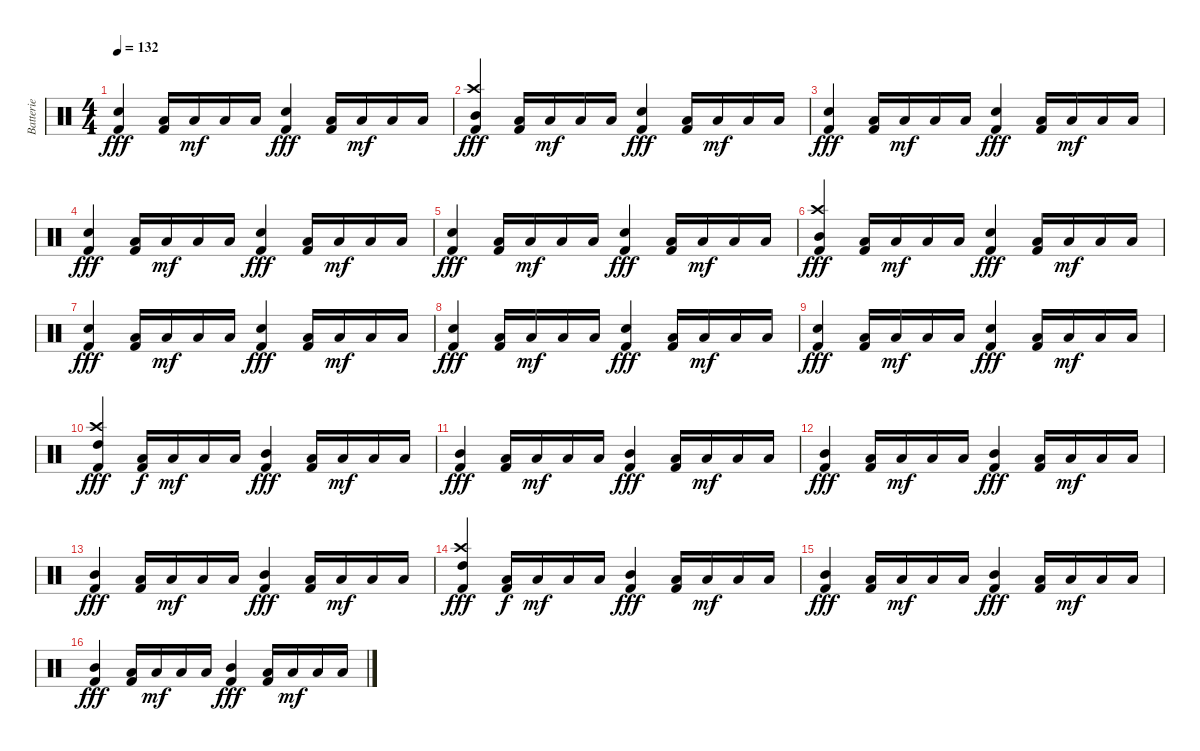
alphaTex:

\track ("Batterie" "Batterie") {instrument percussion}
\staff {score}
\articulation defaults
\ts (4 4)
\tempo 132
\clef neutral
\ks c
("Electric Snare (hit)" "Kick (hit) 2").4{dy fff} ("Low Tom (hit)" "Kick (hit) 2").16 "Low Tom (hit)".16{dy mf} "Low Tom (hit)".16 "Low Tom (hit)".16 ("Electric Snare (hit)" "Kick (hit) 2").4{dy fff} ("Low Tom (hit)" "Kick (hit) 2").16 "Low Tom (hit)".16{dy mf} "Low Tom (hit)".16 "Low Tom (hit)".16 |
("Crash high (hit)" "Mid Tom (hit)" "Kick (hit) 2").4{dy fff} ("Low Tom (hit)" "Kick (hit) 2").16 "Low Tom (hit)".16{dy mf} "Low Tom (hit)".16 "Low Tom (hit)".16 ("Electric Snare (hit)" "Kick (hit) 2").4{dy fff} ("Low Tom (hit)" "Kick (hit) 2").16 "Low Tom (hit)".16{dy mf} "Low Tom (hit)".16 "Low Tom (hit)".16 |
("Electric Snare (hit)" "Kick (hit) 2").4{dy fff} ("Low Tom (hit)" "Kick (hit) 2").16 "Low Tom (hit)".16{dy mf} "Low Tom (hit)".16 "Low Tom (hit)".16 ("Electric Snare (hit)" "Kick (hit) 2").4{dy fff} ("Low Tom (hit)" "Kick (hit) 2").16 "Low Tom (hit)".16{dy mf} "Low Tom (hit)".16 "Low Tom (hit)".16 |
("Electric Snare (hit)" "Kick (hit) 2").4{dy fff} ("Low Tom (hit)" "Kick (hit) 2").16 "Low Tom (hit)".16{dy mf} "Low Tom (hit)".16 "Low Tom (hit)".16 ("Electric Snare (hit)" "Kick (hit) 2").4{dy fff} ("Low Tom (hit)" "Kick (hit) 2").16 "Low Tom (hit)".16{dy mf} "Low Tom (hit)".16 "Low Tom (hit)".16 |
("Electric Snare (hit)" "Kick (hit) 2").4{dy fff} ("Low Tom (hit)" "Kick (hit) 2").16 "Low Tom (hit)".16{dy mf} "Low Tom (hit)".16 "Low Tom (hit)".16 ("Electric Snare (hit)" "Kick (hit) 2").4{dy fff} ("Low Tom (hit)" "Kick (hit) 2").16 "Low Tom (hit)".16{dy mf} "Low Tom (hit)".16 "Low Tom (hit)".16 |
("Crash high (hit)" "Mid Tom (hit)" "Kick (hit) 2").4{dy fff} ("Low Tom (hit)" "Kick (hit) 2").16 "Low Tom (hit)".16{dy mf} "Low Tom (hit)".16 "Low Tom (hit)".16 ("Electric Snare (hit)" "Kick (hit) 2").4{dy fff} ("Low Tom (hit)" "Kick (hit) 2").16 "Low Tom (hit)".16{dy mf} "Low Tom (hit)".16 "Low Tom (hit)".16 |
("Electric Snare (hit)" "Kick (hit) 2").4{dy fff} ("Low Tom (hit)" "Kick (hit) 2").16 "Low Tom (hit)".16{dy mf} "Low Tom (hit)".16 "Low Tom (hit)".16 ("Electric Snare (hit)" "Kick (hit) 2").4{dy fff} ("Low Tom (hit)" "Kick (hit) 2").16 "Low Tom (hit)".16{dy mf} "Low Tom (hit)".16 "Low Tom (hit)".16 |
("Electric Snare (hit)" "Kick (hit) 2").4{dy fff} ("Low Tom (hit)" "Kick (hit) 2").16 "Low Tom (hit)".16{dy mf} "Low Tom (hit)".16 "Low Tom (hit)".16 ("Electric Snare (hit)" "Kick (hit) 2").4{dy fff} ("Low Tom (hit)" "Kick (hit) 2").16 "Low Tom (hit)".16{dy mf} "Low Tom (hit)".16 "Low Tom (hit)".16 |
("Electric Snare (hit)" "Kick (hit) 2").4{dy fff} ("Low Tom (hit)" "Kick (hit) 2").16 "Low Tom (hit)".16{dy mf} "Low Tom (hit)".16 "Low Tom (hit)".16 ("Electric Snare (hit)" "Kick (hit) 2").4{dy fff} ("Low Tom (hit)" "Kick (hit) 2").16 "Low Tom (hit)".16{dy mf} "Low Tom (hit)".16 "Low Tom (hit)".16 |
("Crash high (hit)" "High Tom (hit)" "Kick (hit) 2").4{dy fff} ("Low Tom (hit)" "Kick (hit) 2").16{dy f} "Low Tom (hit)".16{dy mf} "Low Tom (hit)".16 "Low Tom (hit)".16 ("Mid Tom (hit)" "Kick (hit) 2").4{dy fff} ("Low Tom (hit)" "Kick (hit) 2").16 "Low Tom (hit)".16{dy mf} "Low Tom (hit)".16 "Low Tom (hit)".16 |
("Mid Tom (hit)" "Kick (hit) 2").4{dy fff} ("Low Tom (hit)" "Kick (hit) 2").16 "Low Tom (hit)".16{dy mf} "Low Tom (hit)".16 "Low Tom (hit)".16 ("Mid Tom (hit)" "Kick (hit) 2").4{dy fff} ("Low Tom (hit)" "Kick (hit) 2").16 "Low Tom (hit)".16{dy mf} "Low Tom (hit)".16 "Low Tom (hit)".16 |
("Mid Tom (hit)" "Kick (hit) 2").4{dy fff} ("Low Tom (hit)" "Kick (hit) 2").16 "Low Tom (hit)".16{dy mf} "Low Tom (hit)".16 "Low Tom (hit)".16 ("Mid Tom (hit)" "Kick (hit) 2").4{dy fff} ("Low Tom (hit)" "Kick (hit) 2").16 "Low Tom (hit)".16{dy mf} "Low Tom (hit)".16 "Low Tom (hit)".16 |
("Mid Tom (hit)" "Kick (hit) 2").4{dy fff} ("Low Tom (hit)" "Kick (hit) 2").16 "Low Tom (hit)".16{dy mf} "Low Tom (hit)".16 "Low Tom (hit)".16 ("Mid Tom (hit)" "Kick (hit) 2").4{dy fff} ("Low Tom (hit)" "Kick (hit) 2").16 "Low Tom (hit)".16{dy mf} "Low Tom (hit)".16 "Low Tom (hit)".16 |
("Crash high (hit)" "High Tom (hit)" "Kick (hit) 2").4{dy fff} ("Low Tom (hit)" "Kick (hit) 2").16{dy f} "Low Tom (hit)".16{dy mf} "Low Tom (hit)".16 "Low Tom (hit)".16 ("Mid Tom (hit)" "Kick (hit) 2").4{dy fff} ("Low Tom (hit)" "Kick (hit) 2").16 "Low Tom (hit)".16{dy mf} "Low Tom (hit)".16 "Low Tom (hit)".16 |
("Mid Tom (hit)" "Kick (hit) 2").4{dy fff} ("Low Tom (hit)" "Kick (hit) 2").16 "Low Tom (hit)".16{dy mf} "Low Tom (hit)".16 "Low Tom (hit)".16 ("Mid Tom (hit)" "Kick (hit) 2").4{dy fff} ("Low Tom (hit)" "Kick (hit) 2").16 "Low Tom (hit)".16{dy mf} "Low Tom (hit)".16 "Low Tom (hit)".16 |
("Mid Tom (hit)" "Kick (hit) 2").4{dy fff} ("Low Tom (hit)" "Kick (hit) 2").16 "Low Tom (hit)".16{dy mf} "Low Tom (hit)".16 "Low Tom (hit)".16 ("Mid Tom (hit)" "Kick (hit) 2").4{dy fff} ("Low Tom (hit)" "Kick (hit) 2").16 "Low Tom (hit)".16{dy mf} "Low Tom (hit)".16 "Low Tom (hit)".16
